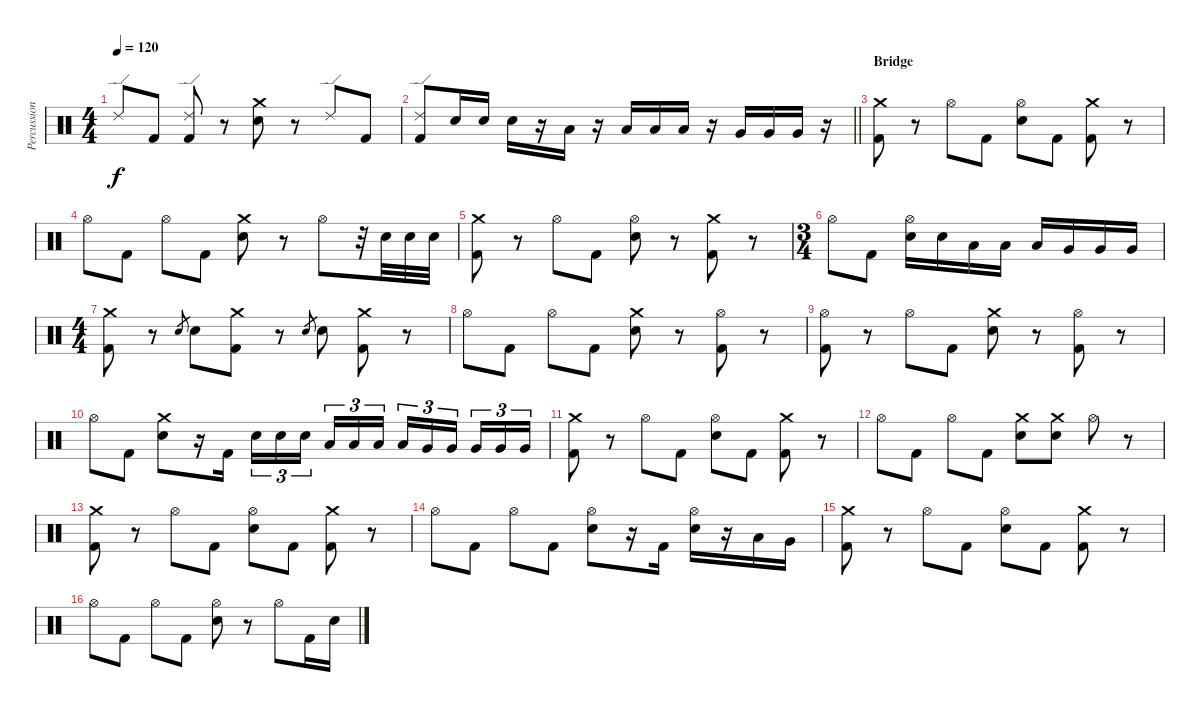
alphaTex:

\track ("Percussion" "Percussion") {instrument percussion}
\staff {score}
\articulation defaults
\ts (4 4)
\tempo 120
\clef neutral
\ks c "Ride (edge) 2".8{dy f} "Kick (hit) 2".8
("Ride (edge) 2" "Kick (hit) 2").8 r.8 ("Crash medium (hit)" "Electric Snare (hit)").8 r.8 "Ride (edge) 2".8 "Kick (hit) 2".8 |
\barLineRight lightlight
("Ride (edge) 2" "Kick (hit) 2").8 "Electric Snare (hit)".16 "Electric Snare (hit)".16 "Electric Snare (hit)".16 r.16 "Low Tom (hit)".16 r.16 "Low Tom (hit)".16 "Low Tom (hit)".16 "Low Tom (hit)".16 r.16 "Very Low Tom (hit)".16 "Very Low Tom (hit)".16 "Very Low Tom (hit)".16 r.16 |
\section ("" "Bridge")
("Crash medium (hit)" "Kick (hit) 2").8 r.8 "Hi-Hat (open)".8 "Kick (hit) 2".8 ("Hi-Hat (open)" "Electric Snare (hit)").8 "Kick (hit) 2".8 ("Crash medium (hit)" "Kick (hit) 2").8 r.8 |
"Hi-Hat (open)".8 "Kick (hit) 2".8 "Hi-Hat (open)".8 "Kick (hit) 2".8 ("Crash medium (hit)" "Electric Snare (hit)").8 r.8 "Hi-Hat (open)".8 r.32 "Electric Snare (hit)".32 "Electric Snare (hit)".32 "Electric Snare (hit)".32 |
("Crash medium (hit)" "Kick (hit) 2").8 r.8 "Hi-Hat (open)".8 "Kick (hit) 2".8 ("Hi-Hat (open)" "Electric Snare (hit)").8 r.8 ("Crash medium (hit)" "Kick (hit) 2").8 r.8 |
\ts (3 4)
"Hi-Hat (open)".8 "Kick (hit) 2".8 ("Hi-Hat (open)" "Electric Snare (hit)").16 "Electric Snare (hit)".16 "Low Tom (hit)".16 "Low Tom (hit)".16 "Low Tom (hit)".16 "Very Low Tom (hit)".16 "Very Low Tom (hit)".16 "Very Low Tom (hit)".16 |
\ts (4 4)
("Crash medium (hit)" "Kick (hit) 2").8 r.8 "Electric Snare (hit)".8{gr} "Electric Snare (hit)".8 ("Crash medium (hit)" "Kick (hit) 2").8 r.8 "Electric Snare (hit)".8{gr} "Electric Snare (hit)".8 ("Crash medium (hit)" "Kick (hit) 2").8 r.8 |
"Hi-Hat (open)".8 "Kick (hit) 2".8 "Hi-Hat (open)".8 "Kick (hit) 2".8 ("Crash medium (hit)" "Electric Snare (hit)").8 r.8 ("Hi-Hat (open)" "Kick (hit) 2").8 r.8 |
("Hi-Hat (open)" "Kick (hit) 2").8 r.8 "Hi-Hat (open)".8 "Kick (hit) 2".8 ("Crash medium (hit)" "Electric Snare (hit)").8 r.8 ("Hi-Hat (open)" "Kick (hit) 2").8 r.8 |
"Hi-Hat (open)".8 "Kick (hit) 2".8 ("Crash medium (hit)" "Electric Snare (hit)").8 r.16 "Kick (hit) 2".16 "Electric Snare (hit)".16{tu (3 2)} "Electric Snare (hit)".16{tu (3 2)} "Electric Snare (hit)".16{tu (3 2) beam splitsecondary} "Low Tom (hit)".16{tu (3 2)} "Low Tom (hit)".16{tu (3 2)} "Low Tom (hit)".16{tu (3 2)} "Low Tom (hit)".16{tu (3 2)} "Very Low Tom (hit)".16{tu (3 2)} "Very Low Tom (hit)".16{tu (3 2) beam splitsecondary} "Very Low Tom (hit)".16{tu (3 2)} "Very Low Tom (hit)".16{tu (3 2)} "Very Low Tom (hit)".16{tu (3 2)} |
("Crash medium (hit)" "Kick (hit) 2").8 r.8 "Hi-Hat (open)".8 "Kick (hit) 2".8 ("Hi-Hat (open)" "Electric Snare (hit)").8 "Kick (hit) 2".8 ("Crash medium (hit)" "Kick (hit) 2").8 r.8 |
"Hi-Hat (open)".8 "Kick (hit) 2".8 "Hi-Hat (open)".8 "Kick (hit) 2".8 ("Crash medium (hit)" "Electric Snare (hit)").8 ("Crash medium (hit)" "Electric Snare (hit)").8 "Hi-Hat (open)".8 r.8 |
("Crash medium (hit)" "Kick (hit) 2").8 r.8 "Hi-Hat (open)".8 "Kick (hit) 2".8 ("Hi-Hat (open)" "Electric Snare (hit)").8 "Kick (hit) 2".8 ("Crash medium (hit)" "Kick (hit) 2").8 r.8 |
"Hi-Hat (open)".8 "Kick (hit) 2".8 "Hi-Hat (open)".8 "Kick (hit) 2".8 ("Hi-Hat (open)" "Electric Snare (hit)").8 r.16 "Kick (hit) 2".16 ("Hi-Hat (open)" "Electric Snare (hit)").16 r.16 "Low Tom (hit)".16 "Very Low Tom (hit)".16 |
("Crash medium (hit)" "Kick (hit) 2").8 r.8 "Hi-Hat (open)".8 "Kick (hit) 2".8 ("Hi-Hat (open)" "Electric Snare (hit)").8 "Kick (hit) 2".8 ("Crash medium (hit)" "Kick (hit) 2").8 r.8 |
"Hi-Hat (open)".8 "Kick (hit) 2".8 "Hi-Hat (open)".8 "Kick (hit) 2".8 ("Hi-Hat (open)" "Electric Snare (hit)").8 r.8 "Hi-Hat (open)".8 "Kick (hit) 2".16 "Electric Snare (hit)".16
